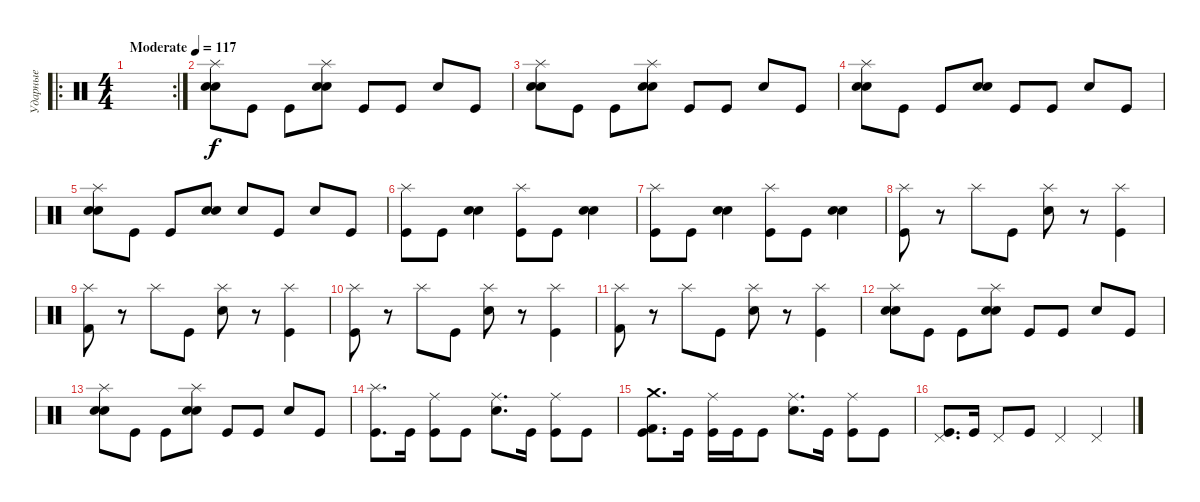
\track ("Ударные" "Ударные") {instrument percussion}
\staff {score}
\articulation defaults
\ro
\rc 2
\ts (4 4)
\tempo (117 "Moderate")
\clef neutral
\ks c
|
("Splash (hit)" "Electric Snare (hit)" "Snare (hit) 2").8 "Kick (hit)".8 "Kick (hit)".8 ("Splash (hit)" "Electric Snare (hit)" "Snare (hit) 2").8 "Kick (hit)".8 "Kick (hit)".8 "Electric Snare (hit)".8 "Kick (hit)".8 |
("Splash (hit)" "Electric Snare (hit)" "Snare (hit) 2").8 "Kick (hit)".8 "Kick (hit)".8 ("Splash (hit)" "Electric Snare (hit)" "Snare (hit) 2").8 "Kick (hit)".8 "Kick (hit)".8 "Electric Snare (hit)".8 "Kick (hit)".8 |
("Splash (hit)" "Electric Snare (hit)" "Snare (hit) 2").8 "Kick (hit)".8 "Kick (hit)".8 ("Electric Snare (hit)" "Snare (hit) 2").8 "Kick (hit)".8 "Kick (hit)".8 "Electric Snare (hit)".8 "Kick (hit)".8 |
("Splash (hit)" "Electric Snare (hit)" "Snare (hit) 2").8 "Kick (hit)".8 "Kick (hit)".8 ("Electric Snare (hit)" "Snare (hit) 2").8 "Electric Snare (hit)".8 "Kick (hit)".8 "Electric Snare (hit)".8 "Kick (hit)".8 |
("Splash (hit)" "Kick (hit)").8 "Kick (hit)".8 ("Electric Snare (hit)" "Snare (hit) 2").4 ("Splash (hit)" "Kick (hit)").8 "Kick (hit)".8 ("Electric Snare (hit)" "Snare (hit) 2").4 |
("Splash (hit)" "Kick (hit)").8 "Kick (hit)".8 ("Electric Snare (hit)" "Snare (hit) 2").4 ("Splash (hit)" "Kick (hit)").8 "Kick (hit)".8 ("Electric Snare (hit)" "Snare (hit) 2").4 |
("Splash (hit)" "Kick (hit)").8 r.8 "Splash (hit)".8 "Kick (hit)".8 ("Splash (hit)" "Electric Snare (hit)").8 r.8 ("Splash (hit)" "Kick (hit)").4 |
("Splash (hit)" "Kick (hit) 2").8 r.8 "Splash (hit)".8 "Kick (hit)".8 ("Splash (hit)" "Electric Snare (hit)").8 r.8 ("Splash (hit)" "Kick (hit)").4 |
("Splash (hit)" "Kick (hit)").8 r.8 "Splash (hit)".8 "Kick (hit)".8 ("Splash (hit)" "Electric Snare (hit)").8 r.8 ("Splash (hit)" "Kick (hit)").4 |
("Splash (hit)" "Kick (hit) 2").8 r.8 "Splash (hit)".8 "Kick (hit)".8 ("Splash (hit)" "Electric Snare (hit)").8 r.8 ("Splash (hit)" "Kick (hit)").4 |
("Splash (hit)" "Electric Snare (hit)" "Snare (hit) 2").8 "Kick (hit)".8 "Kick (hit)".8 ("Splash (hit)" "Electric Snare (hit)" "Snare (hit) 2").8 "Kick (hit)".8 "Kick (hit)".8 "Electric Snare (hit)".8 "Kick (hit)".8 |
("Splash (hit)" "Electric Snare (hit)" "Snare (hit) 2").8 "Kick (hit)".8 "Kick (hit)".8 ("Splash (hit)" "Electric Snare (hit)" "Snare (hit) 2").8 "Kick (hit)".8 "Kick (hit)".8 "Electric Snare (hit)".8 "Kick (hit)".8 |
("Splash (hit)" "Kick (hit)").8{d} "Kick (hit)".16 ("Ride (middle)" "Kick (hit)").8 "Kick (hit)".8 ("Ride (middle)" "Electric Snare (hit)").8{d} "Kick (hit)".16 ("Ride (middle)" "Kick (hit)").8 "Kick (hit)".8 |
("Crash medium (hit)" "Kick (hit)" "Kick (hit) 2").8{d} "Kick (hit)".16 ("Ride (middle)" "Kick (hit)").16 "Kick (hit)".16 "Kick (hit)".8 ("Ride (middle)" "Electric Snare (hit)").8{d} "Kick (hit)".16 ("Ride (middle)" "Kick (hit)").8 "Kick (hit)".8 |
("Pedal Hi-Hat (hit)" "Kick (hit)").8{d} "Kick (hit)".16 "Pedal Hi-Hat (hit)".8 "Kick (hit)".8 "Pedal Hi-Hat (hit)".4 "Pedal Hi-Hat (hit)".4
